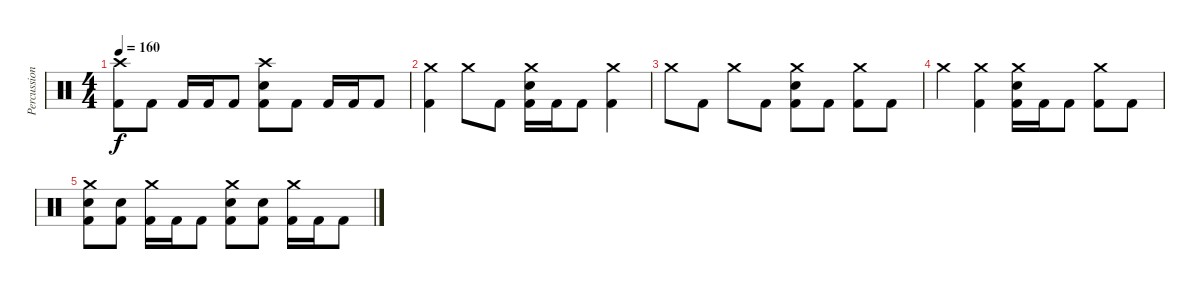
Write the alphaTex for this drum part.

\track ("Percussion" "Percussion") {instrument percussion}
\staff {score}
\articulation defaults
\ts (4 4)
\tempo 160
\clef neutral
\ks c
("Crash high (hit)" "Kick (hit) 2").8{dy f} "Kick (hit) 2".8 "Kick (hit) 2".16 "Kick (hit) 2".16 "Kick (hit) 2".8 ("Crash high (hit)" "Electric Snare (hit)" "Kick (hit) 2").8 "Kick (hit) 2".8 "Kick (hit) 2".16 "Kick (hit) 2".16 "Kick (hit) 2".8 |
("Crash medium (hit)" "Kick (hit) 2").4 "Crash medium (hit)".8 "Kick (hit) 2".8 ("Crash medium (hit)" "Electric Snare (hit)" "Kick (hit) 2").16 "Kick (hit) 2".16 "Kick (hit) 2".8 ("Crash medium (hit)" "Kick (hit) 2").4 |
"Crash medium (hit)".8 "Kick (hit) 2".8 "Crash medium (hit)".8 "Kick (hit) 2".8 ("Crash medium (hit)" "Electric Snare (hit)" "Kick (hit) 2").8 "Kick (hit) 2".8 ("Crash medium (hit)" "Kick (hit) 2").8 "Kick (hit) 2".8 |
"Crash medium (hit)".4 ("Crash medium (hit)" "Kick (hit) 2").4 ("Crash medium (hit)" "Electric Snare (hit)" "Kick (hit) 2").16 "Kick (hit) 2".16 "Kick (hit) 2".8 ("Crash medium (hit)" "Kick (hit) 2").8 "Kick (hit) 2".8 |
("Crash medium (hit)" "Electric Snare (hit)" "Kick (hit) 2").8 ("Electric Snare (hit)" "Kick (hit) 2").8 ("Crash medium (hit)" "Kick (hit) 2").16 "Kick (hit) 2".16 "Kick (hit) 2".8 ("Crash medium (hit)" "Electric Snare (hit)" "Kick (hit) 2").8 ("Electric Snare (hit)" "Kick (hit) 2").8 ("Crash medium (hit)" "Kick (hit) 2").16 "Kick (hit) 2".16 "Kick (hit) 2".8
